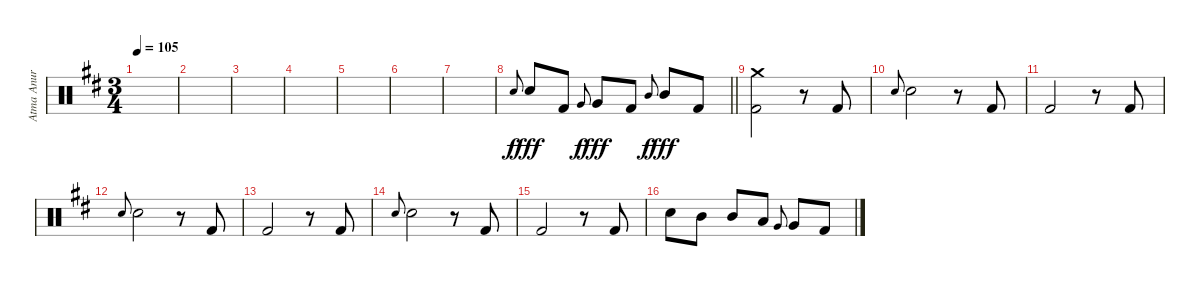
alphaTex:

\track ("Atma Anur" "Atma Anur") {instrument percussion}
\staff {score}
\articulation defaults
\ts (3 4)
\tempo 105
\clef neutral
\ks bminor
|
|
|
|
|
|
|
\barLineRight lightlight "Electric Snare (hit)".8{gr onbeat} "Electric Snare (hit)".8{dy fff} "Kick (hit) 2".8 "Very Low Tom (hit)".8{gr onbeat dy f} "Very Low Tom (hit)".8{dy fff} "Kick (hit) 2".8 "Mid Tom (hit)".8{gr onbeat dy f} "Mid Tom (hit)".8{dy fff} "Kick (hit) 2".8
|
\section ("" "")
("Crash medium (hit)" "Kick (hit) 2").2 r.8 "Kick (hit) 2".8 |
"Electric Snare (hit)".8{gr onbeat} "Electric Snare (hit)".2 r.8 "Kick (hit) 2".8 |
"Kick (hit) 2".2 r.8 "Kick (hit) 2".8 |
"Electric Snare (hit)".8{gr onbeat} "Electric Snare (hit)".2 r.8 "Kick (hit) 2".8 |
"Kick (hit) 2".2 r.8 "Kick (hit) 2".8 |
"Electric Snare (hit)".8{gr onbeat} "Electric Snare (hit)".2 r.8 "Kick (hit) 2".8 |
"Kick (hit) 2".2 r.8 "Kick (hit) 2".8 |
"Electric Snare (hit)".8 "Mid Tom (hit)".8 "Mid Tom (hit)".8 "Low Tom (hit)".8 "Very Low Tom (hit)".8{gr onbeat} "Very Low Tom (hit)".8 "Kick (hit) 2".8
